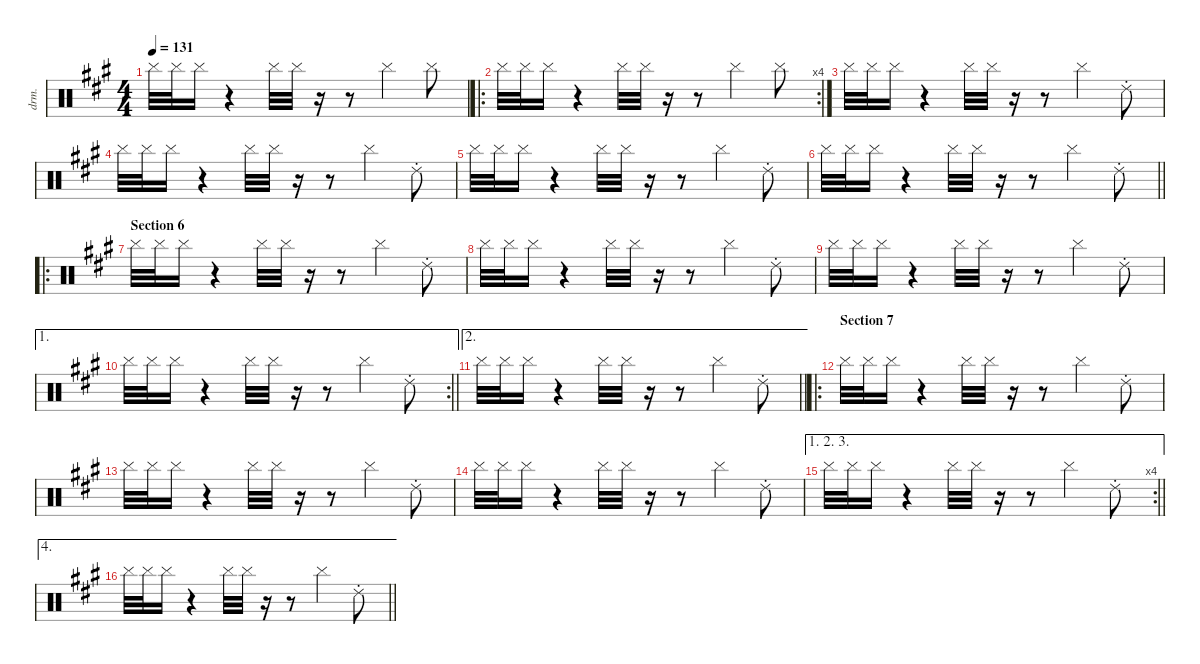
\defaultSystemsLayout 4
\hideDynamics
\bracketExtendMode nobrackets
\otherSystemsTrackNameOrientation horizontal
\track ("Scratchpad" "drm.") {defaultSystemsLayout 8 instrument percussion}
\staff {score}
\articulation defaults
\ts (4 4)
\tempo 131
\clef neutral
\ks f#minor "Cymbal (hit)"{acc forcenatural}.32{dy mf beam Down} "Cymbal (hit)"{acc forcenatural}.32{beam Down} "Cymbal (hit)"{acc forcenatural}.16{beam Down}
r.4{beam Down} "Cymbal (hit)"{acc forcenatural}.32{beam Down} "Cymbal (hit)"{acc forcenatural}.32{beam Down} r.16{beam Down} r.8{beam Down} "Cymbal (hit)"{acc forcenatural}.4{beam Down} "Cymbal (hit)"{acc forcenatural}.8{beam Down} |
\ro
\rc 4 "Cymbal (hit)"{acc forcenatural}.32{beam Down} "Cymbal (hit)"{acc forcenatural}.32{beam Down} "Cymbal (hit)"{acc forcenatural}.16{beam Down}
r.4{beam Down} "Cymbal (hit)"{acc forcenatural}.32{beam Down} "Cymbal (hit)"{acc forcenatural}.32{beam Down} r.16{beam Down} r.8{beam Down} "Cymbal (hit)"{acc forcenatural}.4{beam Down} "Cymbal (hit)"{acc forcenatural}.8{beam Down} |
"Cymbal (hit)"{acc forcenatural}.32{beam Down} "Cymbal (hit)"{acc forcenatural}.32{beam Down} "Cymbal (hit)"{acc forcenatural}.16{beam Down} r.4{beam Down} "Cymbal (hit)"{acc forcenatural}.32{beam Down} "Cymbal (hit)"{acc forcenatural}.32{beam Down} r.16{beam Down} r.8{beam Down} "Cymbal (hit)"{acc forcenatural}.4{beam Down} "Ride (choke) 2"{acc forcenatural}.8{beam Down} |
"Cymbal (hit)"{acc forcenatural}.32{beam Down} "Cymbal (hit)"{acc forcenatural}.32{beam Down} "Cymbal (hit)"{acc forcenatural}.16{beam Down} r.4{beam Down} "Cymbal (hit)"{acc forcenatural}.32{beam Down} "Cymbal (hit)"{acc forcenatural}.32{beam Down} r.16{beam Down} r.8{beam Down} "Cymbal (hit)"{acc forcenatural}.4{beam Down} "Ride (choke) 2"{acc forcenatural}.8{beam Down} |
"Cymbal (hit)"{acc forcenatural}.32{beam Down} "Cymbal (hit)"{acc forcenatural}.32{beam Down} "Cymbal (hit)"{acc forcenatural}.16{beam Down} r.4{beam Down} "Cymbal (hit)"{acc forcenatural}.32{beam Down} "Cymbal (hit)"{acc forcenatural}.32{beam Down} r.16{beam Down} r.8{beam Down} "Cymbal (hit)"{acc forcenatural}.4{beam Down} "Ride (choke) 2"{acc forcenatural}.8{beam Down} |
\barLineRight lightlight "Cymbal (hit)"{acc forcenatural}.32{beam Down} "Cymbal (hit)"{acc forcenatural}.32{beam Down} "Cymbal (hit)"{acc forcenatural}.16{beam Down}
r.4{beam Down} "Cymbal (hit)"{acc forcenatural}.32{beam Down} "Cymbal (hit)"{acc forcenatural}.32{beam Down} r.16{beam Down} r.8{beam Down} "Cymbal (hit)"{acc forcenatural}.4{beam Down} "Ride (choke) 2"{acc forcenatural}.8{beam Down} |
\ro
\section ("" "Section 6")
"Cymbal (hit)"{acc forcenatural}.32{beam Down} "Cymbal (hit)"{acc forcenatural}.32{beam Down} "Cymbal (hit)"{acc forcenatural}.16{beam Down} r.4{beam Down} "Cymbal (hit)"{acc forcenatural}.32{beam Down} "Cymbal (hit)"{acc forcenatural}.32{beam Down} r.16{beam Down} r.8{beam Down} "Cymbal (hit)"{acc forcenatural}.4{beam Down} "Ride (choke) 2"{acc forcenatural}.8{beam Down} |
"Cymbal (hit)"{acc forcenatural}.32{beam Down} "Cymbal (hit)"{acc forcenatural}.32{beam Down} "Cymbal (hit)"{acc forcenatural}.16{beam Down} r.4{beam Down} "Cymbal (hit)"{acc forcenatural}.32{beam Down} "Cymbal (hit)"{acc forcenatural}.32{beam Down} r.16{beam Down} r.8{beam Down} "Cymbal (hit)"{acc forcenatural}.4{beam Down} "Ride (choke) 2"{acc forcenatural}.8{beam Down} |
"Cymbal (hit)"{acc forcenatural}.32{beam Down} "Cymbal (hit)"{acc forcenatural}.32{beam Down} "Cymbal (hit)"{acc forcenatural}.16{beam Down} r.4{beam Down} "Cymbal (hit)"{acc forcenatural}.32{beam Down} "Cymbal (hit)"{acc forcenatural}.32{beam Down} r.16{beam Down} r.8{beam Down} "Cymbal (hit)"{acc forcenatural}.4{beam Down} "Ride (choke) 2"{acc forcenatural}.8{beam Down} |
\ae 1
\rc 2
\barLineRight lightlight "Cymbal (hit)"{acc forcenatural}.32{beam Down} "Cymbal (hit)"{acc forcenatural}.32{beam Down} "Cymbal (hit)"{acc forcenatural}.16{beam Down}
r.4{beam Down} "Cymbal (hit)"{acc forcenatural}.32{beam Down} "Cymbal (hit)"{acc forcenatural}.32{beam Down} r.16{beam Down} r.8{beam Down} "Cymbal (hit)"{acc forcenatural}.4{beam Down} "Ride (choke) 2"{acc forcenatural}.8{beam Down} |
\ae 2
\barLineRight lightlight "Cymbal (hit)"{acc forcenatural}.32{beam Down} "Cymbal (hit)"{acc forcenatural}.32{beam Down} "Cymbal (hit)"{acc forcenatural}.16{beam Down}
r.4{beam Down} "Cymbal (hit)"{acc forcenatural}.32{beam Down} "Cymbal (hit)"{acc forcenatural}.32{beam Down} r.16{beam Down} r.8{beam Down} "Cymbal (hit)"{acc forcenatural}.4{beam Down} "Ride (choke) 2"{acc forcenatural}.8{beam Down} |
\ro
\section ("" "Section 7")
"Cymbal (hit)"{acc forcenatural}.32{beam Down} "Cymbal (hit)"{acc forcenatural}.32{beam Down} "Cymbal (hit)"{acc forcenatural}.16{beam Down} r.4{beam Down} "Cymbal (hit)"{acc forcenatural}.32{beam Down} "Cymbal (hit)"{acc forcenatural}.32{beam Down} r.16{beam Down} r.8{beam Down} "Cymbal (hit)"{acc forcenatural}.4{beam Down} "Ride (choke) 2"{acc forcenatural}.8{beam Down} |
"Cymbal (hit)"{acc forcenatural}.32{beam Down} "Cymbal (hit)"{acc forcenatural}.32{beam Down} "Cymbal (hit)"{acc forcenatural}.16{beam Down} r.4{beam Down} "Cymbal (hit)"{acc forcenatural}.32{beam Down} "Cymbal (hit)"{acc forcenatural}.32{beam Down} r.16{beam Down} r.8{beam Down} "Cymbal (hit)"{acc forcenatural}.4{beam Down} "Ride (choke) 2"{acc forcenatural}.8{beam Down} |
"Cymbal (hit)"{acc forcenatural}.32{beam Down} "Cymbal (hit)"{acc forcenatural}.32{beam Down} "Cymbal (hit)"{acc forcenatural}.16{beam Down} r.4{beam Down} "Cymbal (hit)"{acc forcenatural}.32{beam Down} "Cymbal (hit)"{acc forcenatural}.32{beam Down} r.16{beam Down} r.8{beam Down} "Cymbal (hit)"{acc forcenatural}.4{beam Down} "Ride (choke) 2"{acc forcenatural}.8{beam Down} |
\ae (1 2 3)
\rc 4
\barLineRight lightlight "Cymbal (hit)"{acc forcenatural}.32{beam Down} "Cymbal (hit)"{acc forcenatural}.32{beam Down} "Cymbal (hit)"{acc forcenatural}.16{beam Down}
r.4{beam Down} "Cymbal (hit)"{acc forcenatural}.32{beam Down} "Cymbal (hit)"{acc forcenatural}.32{beam Down} r.16{beam Down} r.8{beam Down} "Cymbal (hit)"{acc forcenatural}.4{beam Down} "Ride (choke) 2"{acc forcenatural}.8{beam Down} |
\ae 4
\barLineRight lightlight "Cymbal (hit)"{acc forcenatural}.32{beam Down} "Cymbal (hit)"{acc forcenatural}.32{beam Down} "Cymbal (hit)"{acc forcenatural}.16{beam Down}
r.4{beam Down} "Cymbal (hit)"{acc forcenatural}.32{beam Down} "Cymbal (hit)"{acc forcenatural}.32{beam Down} r.16{beam Down} r.8{beam Down} "Cymbal (hit)"{acc forcenatural}.4{beam Down} "Ride (choke) 2"{acc forcenatural}.8{beam Down}
